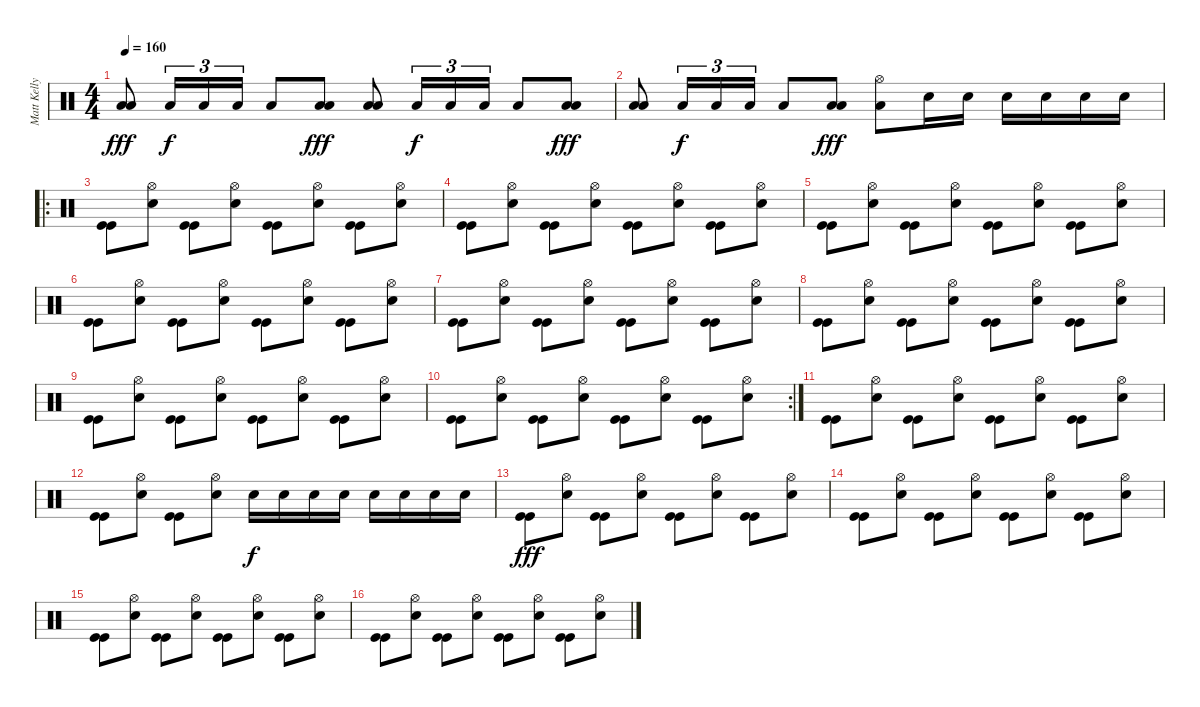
\track ("Matt Kelly" "Matt Kelly") {instrument percussion}
\staff {score}
\articulation defaults
\ts (4 4)
\tempo 160
\clef neutral
\ks c
("Low Floor Tom (hit)" "Low Floor Tom (hit)").8{dy fff} "Low Floor Tom (hit)".16{tu (3 2) dy f} "Low Floor Tom (hit)".16{tu (3 2)} "Low Floor Tom (hit)".16{tu (3 2)} "Low Floor Tom (hit)".8 ("Low Floor Tom (hit)" "Low Floor Tom (hit)").8{dy fff} ("Low Floor Tom (hit)" "Low Floor Tom (hit)").8 "Low Floor Tom (hit)".16{tu (3 2) dy f} "Low Floor Tom (hit)".16{tu (3 2)} "Low Floor Tom (hit)".16{tu (3 2)} "Low Floor Tom (hit)".8 ("Low Floor Tom (hit)" "Low Floor Tom (hit)").8{dy fff} |
("Low Floor Tom (hit)" "Low Floor Tom (hit)").8 "Low Floor Tom (hit)".16{tu (3 2) dy f} "Low Floor Tom (hit)".16{tu (3 2)} "Low Floor Tom (hit)".16{tu (3 2)} "Low Floor Tom (hit)".8 ("Low Floor Tom (hit)" "Low Floor Tom (hit)").8{dy fff} ("Low Floor Tom (hit)" "Hi-Hat (open)").8 "Snare (hit) 2".16 "Snare (hit) 2".16 "Snare (hit) 2".16 "Snare (hit) 2".16 "Snare (hit) 2".16 "Snare (hit) 2".16 |
\ro
("Kick (hit)" "Kick (hit)").8 ("Snare (hit) 2" "Hi-Hat (open)").8 ("Kick (hit)" "Kick (hit)").8 ("Snare (hit) 2" "Hi-Hat (open)").8 ("Kick (hit)" "Kick (hit)").8 ("Snare (hit) 2" "Hi-Hat (open)").8 ("Kick (hit)" "Kick (hit)").8 ("Snare (hit) 2" "Hi-Hat (open)").8 |
("Kick (hit)" "Kick (hit)").8 ("Snare (hit) 2" "Hi-Hat (open)").8 ("Kick (hit)" "Kick (hit)").8 ("Snare (hit) 2" "Hi-Hat (open)").8 ("Kick (hit)" "Kick (hit)").8 ("Snare (hit) 2" "Hi-Hat (open)").8 ("Kick (hit)" "Kick (hit)").8 ("Snare (hit) 2" "Hi-Hat (open)").8 |
("Kick (hit)" "Kick (hit)").8 ("Snare (hit) 2" "Hi-Hat (open)").8 ("Kick (hit)" "Kick (hit)").8 ("Snare (hit) 2" "Hi-Hat (open)").8 ("Kick (hit)" "Kick (hit)").8 ("Snare (hit) 2" "Hi-Hat (open)").8 ("Kick (hit)" "Kick (hit)").8 ("Snare (hit) 2" "Hi-Hat (open)").8 |
("Kick (hit)" "Kick (hit)").8 ("Snare (hit) 2" "Hi-Hat (open)").8 ("Kick (hit)" "Kick (hit)").8 ("Snare (hit) 2" "Hi-Hat (open)").8 ("Kick (hit)" "Kick (hit)").8 ("Snare (hit) 2" "Hi-Hat (open)").8 ("Kick (hit)" "Kick (hit)").8 ("Snare (hit) 2" "Hi-Hat (open)").8 |
("Kick (hit)" "Kick (hit)").8 ("Snare (hit) 2" "Hi-Hat (open)").8 ("Kick (hit)" "Kick (hit)").8 ("Snare (hit) 2" "Hi-Hat (open)").8 ("Kick (hit)" "Kick (hit)").8 ("Snare (hit) 2" "Hi-Hat (open)").8 ("Kick (hit)" "Kick (hit)").8 ("Snare (hit) 2" "Hi-Hat (open)").8 |
("Kick (hit)" "Kick (hit)").8 ("Snare (hit) 2" "Hi-Hat (open)").8 ("Kick (hit)" "Kick (hit)").8 ("Snare (hit) 2" "Hi-Hat (open)").8 ("Kick (hit)" "Kick (hit)").8 ("Snare (hit) 2" "Hi-Hat (open)").8 ("Kick (hit)" "Kick (hit)").8 ("Snare (hit) 2" "Hi-Hat (open)").8 |
("Kick (hit)" "Kick (hit)").8 ("Snare (hit) 2" "Hi-Hat (open)").8 ("Kick (hit)" "Kick (hit)").8 ("Snare (hit) 2" "Hi-Hat (open)").8 ("Kick (hit)" "Kick (hit)").8 ("Snare (hit) 2" "Hi-Hat (open)").8 ("Kick (hit)" "Kick (hit)").8 ("Snare (hit) 2" "Hi-Hat (open)").8 |
\rc 2
("Kick (hit)" "Kick (hit)").8 ("Snare (hit) 2" "Hi-Hat (open)").8 ("Kick (hit)" "Kick (hit)").8 ("Snare (hit) 2" "Hi-Hat (open)").8 ("Kick (hit)" "Kick (hit)").8 ("Snare (hit) 2" "Hi-Hat (open)").8 ("Kick (hit)" "Kick (hit)").8 ("Snare (hit) 2" "Hi-Hat (open)").8 |
("Kick (hit)" "Kick (hit)").8 ("Snare (hit) 2" "Hi-Hat (open)").8 ("Kick (hit)" "Kick (hit)").8 ("Snare (hit) 2" "Hi-Hat (open)").8 ("Kick (hit)" "Kick (hit)").8 ("Snare (hit) 2" "Hi-Hat (open)").8 ("Kick (hit)" "Kick (hit)").8 ("Snare (hit) 2" "Hi-Hat (open)").8 |
("Kick (hit)" "Kick (hit)").8 ("Snare (hit) 2" "Hi-Hat (open)").8 ("Kick (hit)" "Kick (hit)").8 ("Snare (hit) 2" "Hi-Hat (open)").8 "Snare (hit) 2".16{dy f} "Snare (hit) 2".16 "Snare (hit) 2".16 "Snare (hit) 2".16 "Snare (hit) 2".16 "Snare (hit) 2".16 "Snare (hit) 2".16 "Snare (hit) 2".16 |
("Kick (hit)" "Kick (hit)").8{dy fff} ("Snare (hit) 2" "Hi-Hat (open)").8 ("Kick (hit)" "Kick (hit)").8 ("Snare (hit) 2" "Hi-Hat (open)").8 ("Kick (hit)" "Kick (hit)").8 ("Snare (hit) 2" "Hi-Hat (open)").8 ("Kick (hit)" "Kick (hit)").8 ("Snare (hit) 2" "Hi-Hat (open)").8 |
("Kick (hit)" "Kick (hit)").8 ("Snare (hit) 2" "Hi-Hat (open)").8 ("Kick (hit)" "Kick (hit)").8 ("Snare (hit) 2" "Hi-Hat (open)").8 ("Kick (hit)" "Kick (hit)").8 ("Snare (hit) 2" "Hi-Hat (open)").8 ("Kick (hit)" "Kick (hit)").8 ("Snare (hit) 2" "Hi-Hat (open)").8 |
("Kick (hit)" "Kick (hit)").8 ("Snare (hit) 2" "Hi-Hat (open)").8 ("Kick (hit)" "Kick (hit)").8 ("Snare (hit) 2" "Hi-Hat (open)").8 ("Kick (hit)" "Kick (hit)").8 ("Snare (hit) 2" "Hi-Hat (open)").8 ("Kick (hit)" "Kick (hit)").8 ("Snare (hit) 2" "Hi-Hat (open)").8 |
("Kick (hit)" "Kick (hit)").8 ("Snare (hit) 2" "Hi-Hat (open)").8 ("Kick (hit)" "Kick (hit)").8 ("Snare (hit) 2" "Hi-Hat (open)").8 ("Kick (hit)" "Kick (hit)").8 ("Snare (hit) 2" "Hi-Hat (open)").8 ("Kick (hit)" "Kick (hit)").8 ("Snare (hit) 2" "Hi-Hat (open)").8
